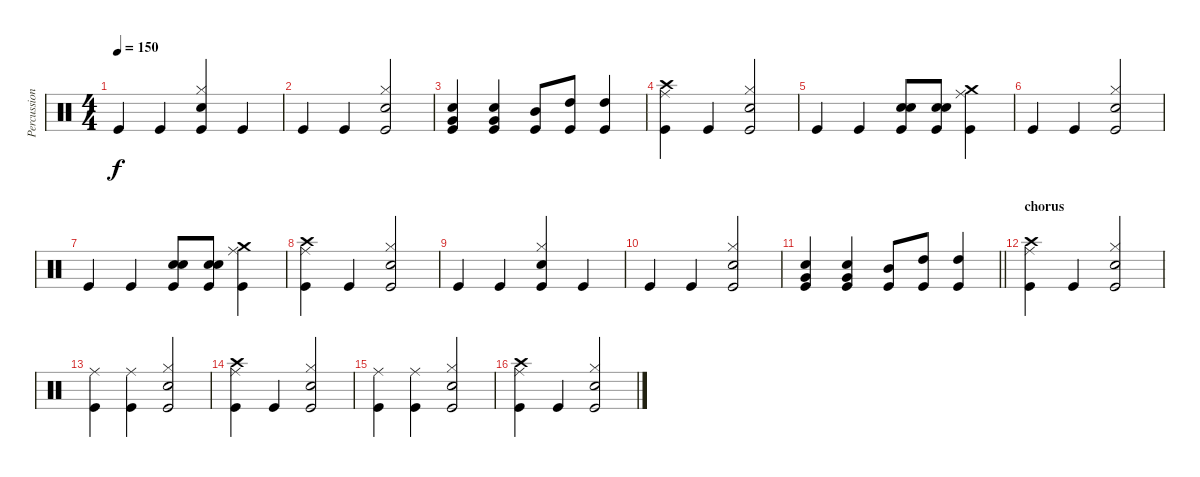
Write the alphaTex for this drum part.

\track ("Percussion" "Percussion") {instrument percussion}
\staff {score}
\articulation defaults
\ts (4 4)
\tempo 150
\clef neutral
\ks c "Kick (hit)".4{dy f} "Kick (hit)".4
("Hi-Hat (closed)" "Electric Snare (hit)" "Kick (hit)").4 "Kick (hit)".4 |
"Kick (hit)".4 "Kick (hit)".4 ("Hi-Hat (closed)" "Electric Snare (hit)" "Kick (hit)").2 |
("Electric Snare (hit)" "Very Low Tom (hit)" "Kick (hit)").4 ("Electric Snare (hit)" "Very Low Tom (hit)" "Kick (hit)").4 ("Mid Tom (hit)" "Kick (hit)").8 ("High Tom (hit)" "Kick (hit)").8 ("High Tom (hit)" "Kick (hit)").4 |
("Crash high (hit)" "Ride (middle)" "Kick (hit)").4 "Kick (hit)".4 ("Hi-Hat (closed)" "Electric Snare (hit)" "Kick (hit)").2 |
"Kick (hit)".4 "Kick (hit)".4 ("Electric Snare (hit)" "Electric Snare (hit)" "Kick (hit)").8 ("Electric Snare (hit)" "Electric Snare (hit)" "Kick (hit)").8 ("Crash medium (hit)" "Ride (middle)" "Kick (hit)").4 |
"Kick (hit)".4 "Kick (hit)".4 ("Hi-Hat (closed)" "Electric Snare (hit)" "Kick (hit)").2 |
"Kick (hit)".4 "Kick (hit)".4 ("Electric Snare (hit)" "Electric Snare (hit)" "Kick (hit)").8 ("Electric Snare (hit)" "Electric Snare (hit)" "Kick (hit)").8 ("Crash medium (hit)" "Ride (middle)" "Kick (hit)").4 |
("Crash high (hit)" "Ride (middle)" "Kick (hit)").4 "Kick (hit)".4 ("Hi-Hat (closed)" "Electric Snare (hit)" "Kick (hit)").2 |
"Kick (hit)".4 "Kick (hit)".4 ("Hi-Hat (closed)" "Electric Snare (hit)" "Kick (hit)").4 "Kick (hit)".4 |
"Kick (hit)".4 "Kick (hit)".4 ("Hi-Hat (closed)" "Electric Snare (hit)" "Kick (hit)").2 |
\barLineRight lightlight
("Electric Snare (hit)" "Very Low Tom (hit)" "Kick (hit)").4 ("Electric Snare (hit)" "Very Low Tom (hit)" "Kick (hit)").4 ("Mid Tom (hit)" "Kick (hit)").8 ("High Tom (hit)" "Kick (hit)").8 ("High Tom (hit)" "Kick (hit)").4 |
\section ("" "chorus")
("Crash high (hit)" "Ride (middle)" "Kick (hit)").4 "Kick (hit)".4 ("Hi-Hat (closed)" "Electric Snare (hit)" "Kick (hit)").2 |
("Ride (middle)" "Kick (hit)").4 ("Ride (middle)" "Kick (hit)").4 ("Hi-Hat (closed)" "Electric Snare (hit)" "Kick (hit)").2 |
("Crash high (hit)" "Ride (middle)" "Kick (hit)").4 "Kick (hit)".4 ("Hi-Hat (closed)" "Electric Snare (hit)" "Kick (hit)").2 |
("Ride (middle)" "Kick (hit)").4 ("Ride (middle)" "Kick (hit)").4 ("Hi-Hat (closed)" "Electric Snare (hit)" "Kick (hit)").2 |
("Crash high (hit)" "Ride (middle)" "Kick (hit)").4 "Kick (hit)".4 ("Hi-Hat (closed)" "Electric Snare (hit)" "Kick (hit)").2
